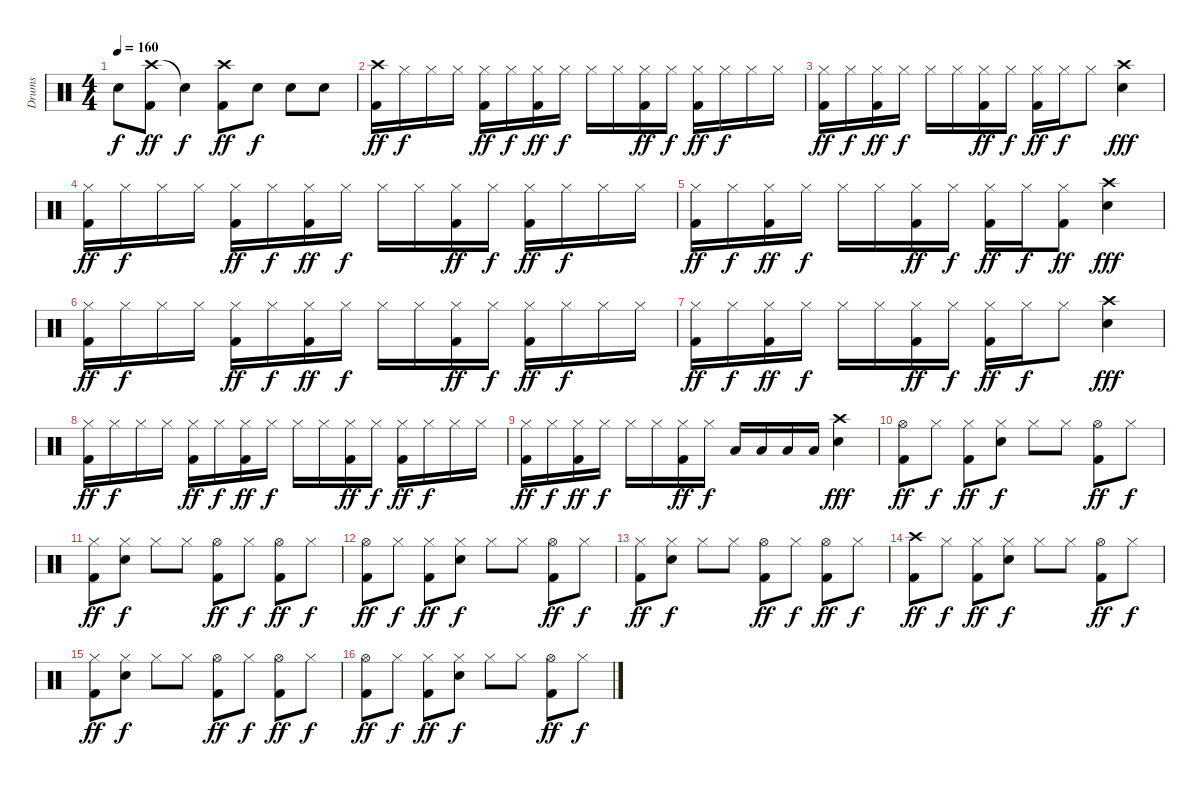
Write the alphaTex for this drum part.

\track ("Drums" "Drums") {instrument percussion}
\staff {score}
\articulation defaults
\ts (4 4)
\tempo 160
\clef neutral
\ks c "Snare (hit) 2".8{dy f}
("Crash high (hit)" "Kick (hit) 2").8{dy ff} "Snare (hit)"{t}.4{dy f} ("Crash high (hit)" "Kick (hit) 2").8{dy ff} "Snare (hit) 2".8{dy f} "Snare (hit) 2".8 "Snare (hit) 2".8 |
("Crash high (hit)" "Kick (hit) 2").16{dy ff} "Hi-Hat (closed)".16{dy f} "Hi-Hat (closed)".16 "Hi-Hat (closed)".16 ("Hi-Hat (closed)" "Kick (hit) 2").16{dy ff} "Hi-Hat (closed)".16{dy f} ("Hi-Hat (closed)" "Kick (hit) 2").16{dy ff} "Hi-Hat (closed)".16{dy f} "Hi-Hat (closed)".16 "Hi-Hat (closed)".16 ("Hi-Hat (closed)" "Kick (hit) 2").16{dy ff} "Hi-Hat (closed)".16{dy f} ("Hi-Hat (closed)" "Kick (hit) 2").16{dy ff} "Hi-Hat (closed)".16{dy f} "Hi-Hat (closed)".16 "Hi-Hat (closed)".16 |
("Hi-Hat (closed)" "Kick (hit) 2").16{dy ff} "Hi-Hat (closed)".16{dy f} ("Hi-Hat (closed)" "Kick (hit) 2").16{dy ff} "Hi-Hat (closed)".16{dy f} "Hi-Hat (closed)".16 "Hi-Hat (closed)".16 ("Hi-Hat (closed)" "Kick (hit) 2").16{dy ff} "Hi-Hat (closed)".16{dy f} ("Hi-Hat (closed)" "Kick (hit) 2").16{dy ff} "Hi-Hat (closed)".16{dy f} "Hi-Hat (closed)".8 ("Crash high (hit)" "Snare (hit) 2").4{dy fff} |
("Hi-Hat (closed)" "Kick (hit) 2").16{dy ff} "Hi-Hat (closed)".16{dy f} "Hi-Hat (closed)".16 "Hi-Hat (closed)".16 ("Hi-Hat (closed)" "Kick (hit) 2").16{dy ff} "Hi-Hat (closed)".16{dy f} ("Hi-Hat (closed)" "Kick (hit) 2").16{dy ff} "Hi-Hat (closed)".16{dy f} "Hi-Hat (closed)".16 "Hi-Hat (closed)".16 ("Hi-Hat (closed)" "Kick (hit) 2").16{dy ff} "Hi-Hat (closed)".16{dy f} ("Hi-Hat (closed)" "Kick (hit) 2").16{dy ff} "Hi-Hat (closed)".16{dy f} "Hi-Hat (closed)".16 "Hi-Hat (closed)".16 |
("Hi-Hat (closed)" "Kick (hit) 2").16{dy ff} "Hi-Hat (closed)".16{dy f} ("Hi-Hat (closed)" "Kick (hit) 2").16{dy ff} "Hi-Hat (closed)".16{dy f} "Hi-Hat (closed)".16 "Hi-Hat (closed)".16 ("Hi-Hat (closed)" "Kick (hit) 2").16{dy ff} "Hi-Hat (closed)".16{dy f} ("Hi-Hat (closed)" "Kick (hit) 2").16{dy ff} "Hi-Hat (closed)".16{dy f} ("Hi-Hat (closed)" "Kick (hit) 2").8{dy ff} ("Crash high (hit)" "Snare (hit) 2").4{dy fff} |
("Hi-Hat (closed)" "Kick (hit) 2").16{dy ff} "Hi-Hat (closed)".16{dy f} "Hi-Hat (closed)".16 "Hi-Hat (closed)".16 ("Hi-Hat (closed)" "Kick (hit) 2").16{dy ff} "Hi-Hat (closed)".16{dy f} ("Hi-Hat (closed)" "Kick (hit) 2").16{dy ff} "Hi-Hat (closed)".16{dy f} "Hi-Hat (closed)".16 "Hi-Hat (closed)".16 ("Hi-Hat (closed)" "Kick (hit) 2").16{dy ff} "Hi-Hat (closed)".16{dy f} ("Hi-Hat (closed)" "Kick (hit) 2").16{dy ff} "Hi-Hat (closed)".16{dy f} "Hi-Hat (closed)".16 "Hi-Hat (closed)".16 |
("Hi-Hat (closed)" "Kick (hit) 2").16{dy ff} "Hi-Hat (closed)".16{dy f} ("Hi-Hat (closed)" "Kick (hit) 2").16{dy ff} "Hi-Hat (closed)".16{dy f} "Hi-Hat (closed)".16 "Hi-Hat (closed)".16 ("Hi-Hat (closed)" "Kick (hit) 2").16{dy ff} "Hi-Hat (closed)".16{dy f} ("Hi-Hat (closed)" "Kick (hit) 2").16{dy ff} "Hi-Hat (closed)".16{dy f} "Hi-Hat (closed)".8 ("Crash high (hit)" "Snare (hit) 2").4{dy fff} |
("Hi-Hat (closed)" "Kick (hit) 2").16{dy ff} "Hi-Hat (closed)".16{dy f} "Hi-Hat (closed)".16 "Hi-Hat (closed)".16 ("Hi-Hat (closed)" "Kick (hit) 2").16{dy ff} "Hi-Hat (closed)".16{dy f} ("Hi-Hat (closed)" "Kick (hit) 2").16{dy ff} "Hi-Hat (closed)".16{dy f} "Hi-Hat (closed)".16 "Hi-Hat (closed)".16 ("Hi-Hat (closed)" "Kick (hit) 2").16{dy ff} "Hi-Hat (closed)".16{dy f} ("Hi-Hat (closed)" "Kick (hit) 2").16{dy ff} "Hi-Hat (closed)".16{dy f} "Hi-Hat (closed)".16 "Hi-Hat (closed)".16 |
("Hi-Hat (closed)" "Kick (hit) 2").16{dy ff} "Hi-Hat (closed)".16{dy f} ("Hi-Hat (closed)" "Kick (hit) 2").16{dy ff} "Hi-Hat (closed)".16{dy f} "Hi-Hat (closed)".16 "Hi-Hat (closed)".16 ("Hi-Hat (closed)" "Kick (hit) 2").16{dy ff} "Hi-Hat (closed)".16{dy f} "Low Tom (hit)".16 "Low Tom (hit)".16 "Low Tom (hit)".16 "Low Tom (hit)".16 ("Crash high (hit)" "Snare (hit) 2").4{dy fff} |
("Hi-Hat (open)" "Kick (hit) 2").8{dy ff} "Hi-Hat (closed)".8{dy f} ("Hi-Hat (closed)" "Kick (hit) 2").8{dy ff} ("Hi-Hat (closed)" "Snare (hit) 2").8{dy f} "Hi-Hat (closed)".8 "Hi-Hat (closed)".8 ("Hi-Hat (open)" "Kick (hit) 2").8{dy ff} "Hi-Hat (closed)".8{dy f} |
("Hi-Hat (closed)" "Kick (hit) 2").8{dy ff} ("Hi-Hat (closed)" "Snare (hit) 2").8{dy f} "Hi-Hat (closed)".8 "Hi-Hat (closed)".8 ("Hi-Hat (open)" "Kick (hit) 2").8{dy ff} "Hi-Hat (closed)".8{dy f} ("Hi-Hat (open)" "Kick (hit) 2").8{dy ff} "Hi-Hat (closed)".8{dy f} |
("Hi-Hat (open)" "Kick (hit) 2").8{dy ff} "Hi-Hat (closed)".8{dy f} ("Hi-Hat (closed)" "Kick (hit) 2").8{dy ff} ("Hi-Hat (closed)" "Snare (hit) 2").8{dy f} "Hi-Hat (closed)".8 "Hi-Hat (closed)".8 ("Hi-Hat (open)" "Kick (hit) 2").8{dy ff} "Hi-Hat (closed)".8{dy f} |
("Hi-Hat (closed)" "Kick (hit) 2").8{dy ff} ("Hi-Hat (closed)" "Snare (hit) 2").8{dy f} "Hi-Hat (closed)".8 "Hi-Hat (closed)".8 ("Hi-Hat (open)" "Kick (hit) 2").8{dy ff} "Hi-Hat (closed)".8{dy f} ("Hi-Hat (open)" "Kick (hit) 2").8{dy ff} "Hi-Hat (closed)".8{dy f} |
("Crash high (hit)" "Kick (hit) 2").8{dy ff} "Hi-Hat (closed)".8{dy f} ("Hi-Hat (closed)" "Kick (hit) 2").8{dy ff} ("Hi-Hat (closed)" "Snare (hit) 2").8{dy f} "Hi-Hat (closed)".8 "Hi-Hat (closed)".8 ("Hi-Hat (open)" "Kick (hit) 2").8{dy ff} "Hi-Hat (closed)".8{dy f} |
("Hi-Hat (closed)" "Kick (hit) 2").8{dy ff} ("Hi-Hat (closed)" "Snare (hit) 2").8{dy f} "Hi-Hat (closed)".8 "Hi-Hat (closed)".8 ("Hi-Hat (open)" "Kick (hit) 2").8{dy ff} "Hi-Hat (closed)".8{dy f} ("Hi-Hat (open)" "Kick (hit) 2").8{dy ff} "Hi-Hat (closed)".8{dy f} |
("Hi-Hat (open)" "Kick (hit) 2").8{dy ff} "Hi-Hat (closed)".8{dy f} ("Hi-Hat (closed)" "Kick (hit) 2").8{dy ff} ("Hi-Hat (closed)" "Snare (hit) 2").8{dy f} "Hi-Hat (closed)".8 "Hi-Hat (closed)".8 ("Hi-Hat (open)" "Kick (hit) 2").8{dy ff} "Hi-Hat (closed)".8{dy f}
